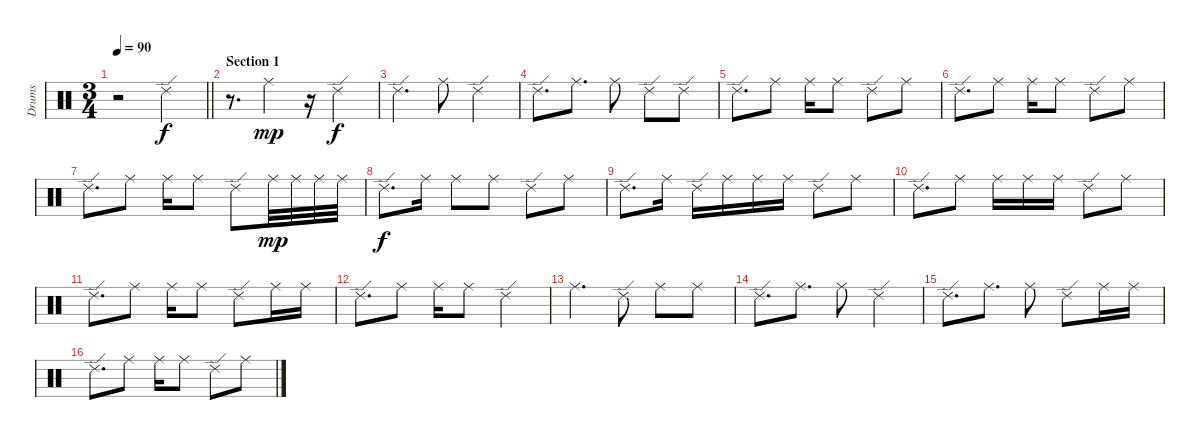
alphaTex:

\track ("Drums" "Drums") {instrument percussion}
\staff {score}
\articulation defaults
\ts (3 4)
\tempo 90
\clef neutral
\barLineRight lightlight
\ks c
r.2{dy mf} "Ride (edge) 2".4{dy f} |
\section ("" "Section 1")
r.8{d} "Ride (middle)".4{dy mp} r.16 "Ride (edge) 2".4{dy f} |
"Ride (edge) 2".4{d} "Ride (middle)".8 "Ride (edge) 2".4 |
"Ride (edge) 2".8{d} "Ride (middle)".8{d} "Ride (middle)".8 "Ride (edge) 2".8 "Ride (edge) 2".8 |
"Ride (edge) 2".8{d} "Ride (middle)".8 "Ride (middle)".16 "Ride (middle)".8 "Ride (edge) 2".8 "Ride (middle)".8 |
"Ride (edge) 2".8{d} "Ride (middle)".8 "Ride (middle)".16 "Ride (middle)".8 "Ride (edge) 2".8 "Ride (middle)".8 |
"Ride (edge) 2".8{d} "Ride (middle)".8 "Ride (middle)".16 "Ride (middle)".8 "Ride (edge) 2".8 "Ride (middle)".32{dy mp} "Ride (middle)".32 "Ride (middle)".32 "Ride (middle)".32 |
"Ride (edge) 2".8{d dy f} "Ride (middle)".16 "Ride (middle)".8 "Ride (middle)".8 "Ride (edge) 2".8 "Ride (middle)".8 |
"Ride (edge) 2".8{d} "Ride (middle)".16 "Ride (edge) 2".16 "Ride (middle)".16 "Ride (middle)".16 "Ride (middle)".16 "Ride (edge) 2".8 "Ride (middle)".8 |
"Ride (edge) 2".8{d} "Ride (middle)".8 "Ride (middle)".16 "Ride (middle)".16 "Ride (middle)".16 "Ride (edge) 2".8 "Ride (middle)".8 |
"Ride (edge) 2".8{d} "Ride (middle)".8 "Ride (middle)".16 "Ride (middle)".8 "Ride (edge) 2".8 "Ride (middle)".16 "Ride (middle)".16 |
"Ride (edge) 2".8{d} "Ride (middle)".8 "Ride (middle)".16 "Ride (middle)".8 "Ride (edge) 2".4 |
"Ride (middle)".4{d} "Ride (edge) 2".8 "Ride (middle)".8 "Ride (middle)".8 |
"Ride (edge) 2".8{d} "Ride (middle)".8{d} "Ride (middle)".8 "Ride (edge) 2".4 |
"Ride (edge) 2".8{d} "Ride (middle)".8{d} "Ride (middle)".8 "Ride (edge) 2".8 "Ride (middle)".16 "Ride (middle)".16 |
"Ride (edge) 2".8{d} "Ride (middle)".8 "Ride (middle)".16 "Ride (middle)".8 "Ride (edge) 2".8 "Ride (middle)".8
